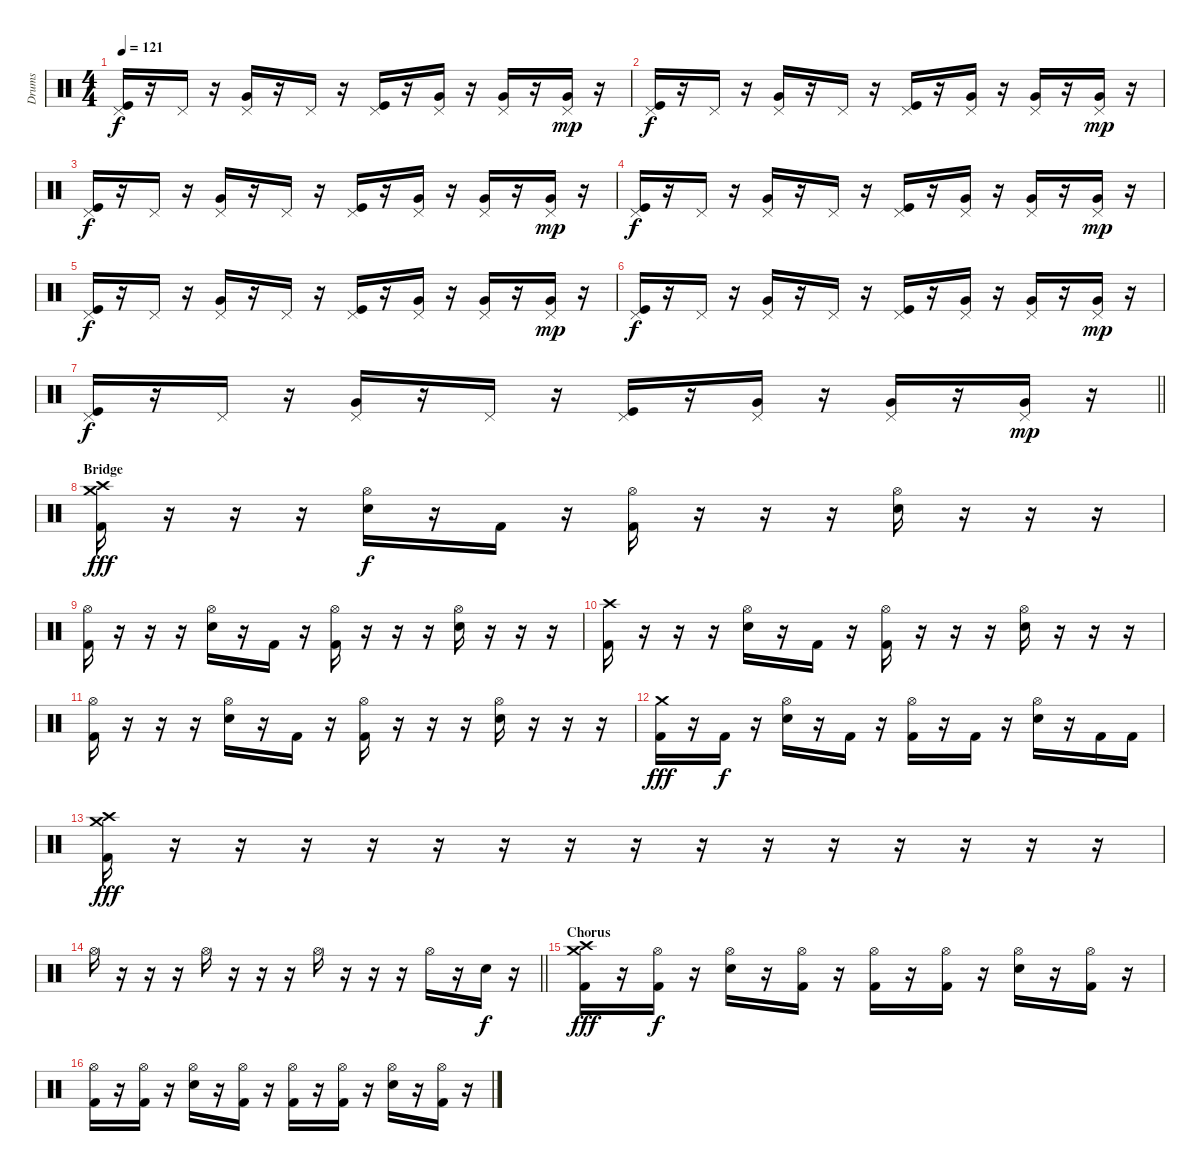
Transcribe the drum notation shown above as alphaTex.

\track ("Drums" "Drums") {instrument percussion}
\staff {score}
\articulation defaults
\ts (4 4)
\tempo 121
\clef neutral
\ks c
("Pedal Hi-Hat (hit)" "Kick (hit)").16{dy f} r.16 "Pedal Hi-Hat (hit)".16 r.16 ("Pedal Hi-Hat (hit)" "Very Low Tom (hit)").16 r.16 "Pedal Hi-Hat (hit)".16 r.16 ("Pedal Hi-Hat (hit)" "Kick (hit)").16 r.16 ("Pedal Hi-Hat (hit)" "Very Low Tom (hit)").16 r.16 ("Pedal Hi-Hat (hit)" "Very Low Tom (hit)").16 r.16 ("Pedal Hi-Hat (hit)" "Very Low Tom (hit)").16{dy mp} r.16 |
("Pedal Hi-Hat (hit)" "Kick (hit)").16{dy f} r.16 "Pedal Hi-Hat (hit)".16 r.16 ("Pedal Hi-Hat (hit)" "Very Low Tom (hit)").16 r.16 "Pedal Hi-Hat (hit)".16 r.16 ("Pedal Hi-Hat (hit)" "Kick (hit)").16 r.16 ("Pedal Hi-Hat (hit)" "Very Low Tom (hit)").16 r.16 ("Pedal Hi-Hat (hit)" "Very Low Tom (hit)").16 r.16 ("Pedal Hi-Hat (hit)" "Very Low Tom (hit)").16{dy mp} r.16 |
("Pedal Hi-Hat (hit)" "Kick (hit)").16{dy f} r.16 "Pedal Hi-Hat (hit)".16 r.16 ("Pedal Hi-Hat (hit)" "Very Low Tom (hit)").16 r.16 "Pedal Hi-Hat (hit)".16 r.16 ("Pedal Hi-Hat (hit)" "Kick (hit)").16 r.16 ("Pedal Hi-Hat (hit)" "Very Low Tom (hit)").16 r.16 ("Pedal Hi-Hat (hit)" "Very Low Tom (hit)").16 r.16 ("Pedal Hi-Hat (hit)" "Very Low Tom (hit)").16{dy mp} r.16 |
("Pedal Hi-Hat (hit)" "Kick (hit)").16{dy f} r.16 "Pedal Hi-Hat (hit)".16 r.16 ("Pedal Hi-Hat (hit)" "Very Low Tom (hit)").16 r.16 "Pedal Hi-Hat (hit)".16 r.16 ("Pedal Hi-Hat (hit)" "Kick (hit)").16 r.16 ("Pedal Hi-Hat (hit)" "Very Low Tom (hit)").16 r.16 ("Pedal Hi-Hat (hit)" "Very Low Tom (hit)").16 r.16 ("Pedal Hi-Hat (hit)" "Very Low Tom (hit)").16{dy mp} r.16 |
("Pedal Hi-Hat (hit)" "Kick (hit)").16{dy f} r.16 "Pedal Hi-Hat (hit)".16 r.16 ("Pedal Hi-Hat (hit)" "Very Low Tom (hit)").16 r.16 "Pedal Hi-Hat (hit)".16 r.16 ("Pedal Hi-Hat (hit)" "Kick (hit)").16 r.16 ("Pedal Hi-Hat (hit)" "Very Low Tom (hit)").16 r.16 ("Pedal Hi-Hat (hit)" "Very Low Tom (hit)").16 r.16 ("Pedal Hi-Hat (hit)" "Very Low Tom (hit)").16{dy mp} r.16 |
("Pedal Hi-Hat (hit)" "Kick (hit)").16{dy f} r.16 "Pedal Hi-Hat (hit)".16 r.16 ("Pedal Hi-Hat (hit)" "Very Low Tom (hit)").16 r.16 "Pedal Hi-Hat (hit)".16 r.16 ("Pedal Hi-Hat (hit)" "Kick (hit)").16 r.16 ("Pedal Hi-Hat (hit)" "Very Low Tom (hit)").16 r.16 ("Pedal Hi-Hat (hit)" "Very Low Tom (hit)").16 r.16 ("Pedal Hi-Hat (hit)" "Very Low Tom (hit)").16{dy mp} r.16 |
\barLineRight lightlight
("Pedal Hi-Hat (hit)" "Kick (hit)").16{dy f} r.16 "Pedal Hi-Hat (hit)".16 r.16 ("Pedal Hi-Hat (hit)" "Very Low Tom (hit)").16 r.16 "Pedal Hi-Hat (hit)".16 r.16 ("Pedal Hi-Hat (hit)" "Kick (hit)").16 r.16 ("Pedal Hi-Hat (hit)" "Very Low Tom (hit)").16 r.16 ("Pedal Hi-Hat (hit)" "Very Low Tom (hit)").16 r.16 ("Pedal Hi-Hat (hit)" "Very Low Tom (hit)").16{dy mp} r.16 |
\section ("" "Bridge")
("Crash high (hit)" "Crash medium (hit)" "Kick (hit) 2").16{dy fff volume 14} r.16 r.16 r.16 ("Hi-Hat (open)" "Electric Snare (hit)").16{dy f} r.16 "Kick (hit) 2".16 r.16 ("Hi-Hat (open)" "Kick (hit) 2").16 r.16 r.16 r.16 ("Hi-Hat (open)" "Electric Snare (hit)").16 r.16 r.16 r.16 |
("Hi-Hat (open)" "Kick (hit) 2").16 r.16 r.16 r.16 ("Hi-Hat (open)" "Electric Snare (hit)").16 r.16 "Kick (hit) 2".16 r.16 ("Hi-Hat (open)" "Kick (hit) 2").16 r.16 r.16 r.16 ("Hi-Hat (open)" "Electric Snare (hit)").16 r.16 r.16 r.16 |
("Crash high (hit)" "Kick (hit) 2").16 r.16 r.16 r.16 ("Hi-Hat (open)" "Electric Snare (hit)").16 r.16 "Kick (hit) 2".16 r.16 ("Hi-Hat (open)" "Kick (hit) 2").16 r.16 r.16 r.16 ("Hi-Hat (open)" "Electric Snare (hit)").16 r.16 r.16 r.16 |
("Hi-Hat (open)" "Kick (hit) 2").16 r.16 r.16 r.16 ("Hi-Hat (open)" "Electric Snare (hit)").16 r.16 "Kick (hit) 2".16 r.16 ("Hi-Hat (open)" "Kick (hit) 2").16 r.16 r.16 r.16 ("Hi-Hat (open)" "Electric Snare (hit)").16 r.16 r.16 r.16 |
("Crash medium (hit)" "Kick (hit) 2").16{dy fff} r.16 "Kick (hit) 2".16{dy f} r.16 ("Hi-Hat (open)" "Electric Snare (hit)").16 r.16 "Kick (hit) 2".16 r.16 ("Hi-Hat (open)" "Kick (hit) 2").16 r.16 "Kick (hit) 2".16 r.16 ("Hi-Hat (open)" "Electric Snare (hit)").16 r.16 "Kick (hit) 2".16 "Kick (hit) 2".16 |
("Crash high (hit)" "Crash medium (hit)" "Kick (hit) 2").16{dy fff} r.16 r.16 r.16 r.16 r.16 r.16 r.16 r.16 r.16 r.16 r.16 r.16 r.16 r.16 r.16 |
\barLineRight lightlight "Hi-Hat (open)".16
r.16 r.16 r.16 "Hi-Hat (open)".16 r.16 r.16 r.16 "Hi-Hat (open)".16 r.16 r.16 r.16 "Hi-Hat (open)".16 r.16 "Electric Snare (hit)".16{dy f} r.16 |
\section ("" "Chorus")
("Crash high (hit)" "Crash medium (hit)" "Kick (hit) 2").16{dy fff} r.16 ("Hi-Hat (open)" "Kick (hit) 2").16{dy f} r.16 ("Hi-Hat (open)" "Electric Snare (hit)").16 r.16 ("Hi-Hat (open)" "Kick (hit) 2").16 r.16 ("Hi-Hat (open)" "Kick (hit) 2").16 r.16 ("Hi-Hat (open)" "Kick (hit) 2").16 r.16 ("Hi-Hat (open)" "Electric Snare (hit)").16 r.16 ("Hi-Hat (open)" "Kick (hit) 2").16 r.16 |
("Hi-Hat (open)" "Kick (hit) 2").16 r.16 ("Hi-Hat (open)" "Kick (hit) 2").16 r.16 ("Hi-Hat (open)" "Electric Snare (hit)").16 r.16 ("Hi-Hat (open)" "Kick (hit) 2").16 r.16 ("Hi-Hat (open)" "Kick (hit) 2").16 r.16 ("Hi-Hat (open)" "Kick (hit) 2").16 r.16 ("Hi-Hat (open)" "Electric Snare (hit)").16 r.16 ("Hi-Hat (open)" "Kick (hit) 2").16 r.16
